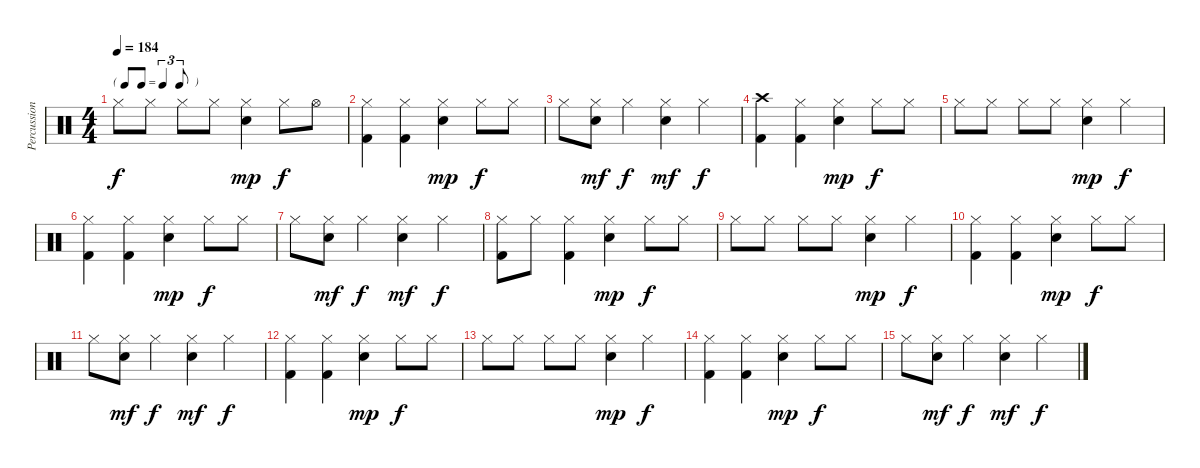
\track ("Percussion" "Percussion") {instrument percussion}
\staff {score}
\articulation defaults
\ts (4 4)
\tf triplet8th
\tempo 184
\clef neutral
\ks c "Hi-Hat (closed)".8{dy f} "Hi-Hat (closed)".8 "Hi-Hat (closed)".8 "Hi-Hat (closed)".8
("Hi-Hat (closed)" "Electric Snare (hit)").4{dy mp} "Hi-Hat (closed)".8{dy f} "Hi-Hat (open)".8 |
("Hi-Hat (closed)" "Kick (hit) 2").4{volume 7} ("Hi-Hat (closed)" "Kick (hit) 2").4 ("Hi-Hat (closed)" "Electric Snare (hit)").4{dy mp} "Hi-Hat (closed)".8{dy f} "Hi-Hat (closed)".8 |
"Hi-Hat (closed)".8 ("Hi-Hat (closed)" "Electric Snare (hit)").8{dy mf} "Hi-Hat (closed)".4{dy f} ("Hi-Hat (closed)" "Electric Snare (hit)").4{dy mf} "Hi-Hat (closed)".4{dy f} |
\section ("" "")
("Crash high (hit)" "Kick (hit) 2").4{volume 6} ("Hi-Hat (closed)" "Kick (hit) 2").4 ("Hi-Hat (closed)" "Electric Snare (hit)").4{dy mp} "Hi-Hat (closed)".8{dy f} "Hi-Hat (closed)".8 |
"Hi-Hat (closed)".8 "Hi-Hat (closed)".8 "Hi-Hat (closed)".8 "Hi-Hat (closed)".8 ("Hi-Hat (closed)" "Electric Snare (hit)").4{dy mp} "Hi-Hat (closed)".4{dy f} |
("Hi-Hat (closed)" "Kick (hit) 2").4{volume 5} ("Hi-Hat (closed)" "Kick (hit) 2").4 ("Hi-Hat (closed)" "Electric Snare (hit)").4{dy mp} "Hi-Hat (closed)".8{dy f} "Hi-Hat (closed)".8 |
"Hi-Hat (closed)".8 ("Hi-Hat (closed)" "Electric Snare (hit)").8{dy mf} "Hi-Hat (closed)".4{dy f} ("Hi-Hat (closed)" "Electric Snare (hit)").4{dy mf} "Hi-Hat (closed)".4{dy f} |
("Hi-Hat (closed)" "Kick (hit) 2").8{volume 4} "Hi-Hat (closed)".8 ("Hi-Hat (closed)" "Kick (hit) 2").4 ("Hi-Hat (closed)" "Electric Snare (hit)").4{dy mp} "Hi-Hat (closed)".8{dy f} "Hi-Hat (closed)".8 |
"Hi-Hat (closed)".8 "Hi-Hat (closed)".8 "Hi-Hat (closed)".8 "Hi-Hat (closed)".8 ("Hi-Hat (closed)" "Electric Snare (hit)").4{dy mp} "Hi-Hat (closed)".4{dy f} |
("Hi-Hat (closed)" "Kick (hit) 2").4{volume 3} ("Hi-Hat (closed)" "Kick (hit) 2").4 ("Hi-Hat (closed)" "Electric Snare (hit)").4{dy mp} "Hi-Hat (closed)".8{dy f} "Hi-Hat (closed)".8 |
"Hi-Hat (closed)".8 ("Hi-Hat (closed)" "Electric Snare (hit)").8{dy mf} "Hi-Hat (closed)".4{dy f} ("Hi-Hat (closed)" "Electric Snare (hit)").4{dy mf} "Hi-Hat (closed)".4{dy f} |
\section ("" "")
("Hi-Hat (closed)" "Kick (hit) 2").4{volume 2} ("Hi-Hat (closed)" "Kick (hit) 2").4 ("Hi-Hat (closed)" "Electric Snare (hit)").4{dy mp} "Hi-Hat (closed)".8{dy f} "Hi-Hat (closed)".8 |
"Hi-Hat (closed)".8 "Hi-Hat (closed)".8 "Hi-Hat (closed)".8 "Hi-Hat (closed)".8 ("Hi-Hat (closed)" "Electric Snare (hit)").4{dy mp} "Hi-Hat (closed)".4{dy f} |
("Hi-Hat (closed)" "Kick (hit) 2").4{volume 0} ("Hi-Hat (closed)" "Kick (hit) 2").4 ("Hi-Hat (closed)" "Electric Snare (hit)").4{dy mp} "Hi-Hat (closed)".8{dy f} "Hi-Hat (closed)".8 |
"Hi-Hat (closed)".8 ("Hi-Hat (closed)" "Electric Snare (hit)").8{dy mf} "Hi-Hat (closed)".4{dy f} ("Hi-Hat (closed)" "Electric Snare (hit)").4{dy mf} "Hi-Hat (closed)".4{dy f}
